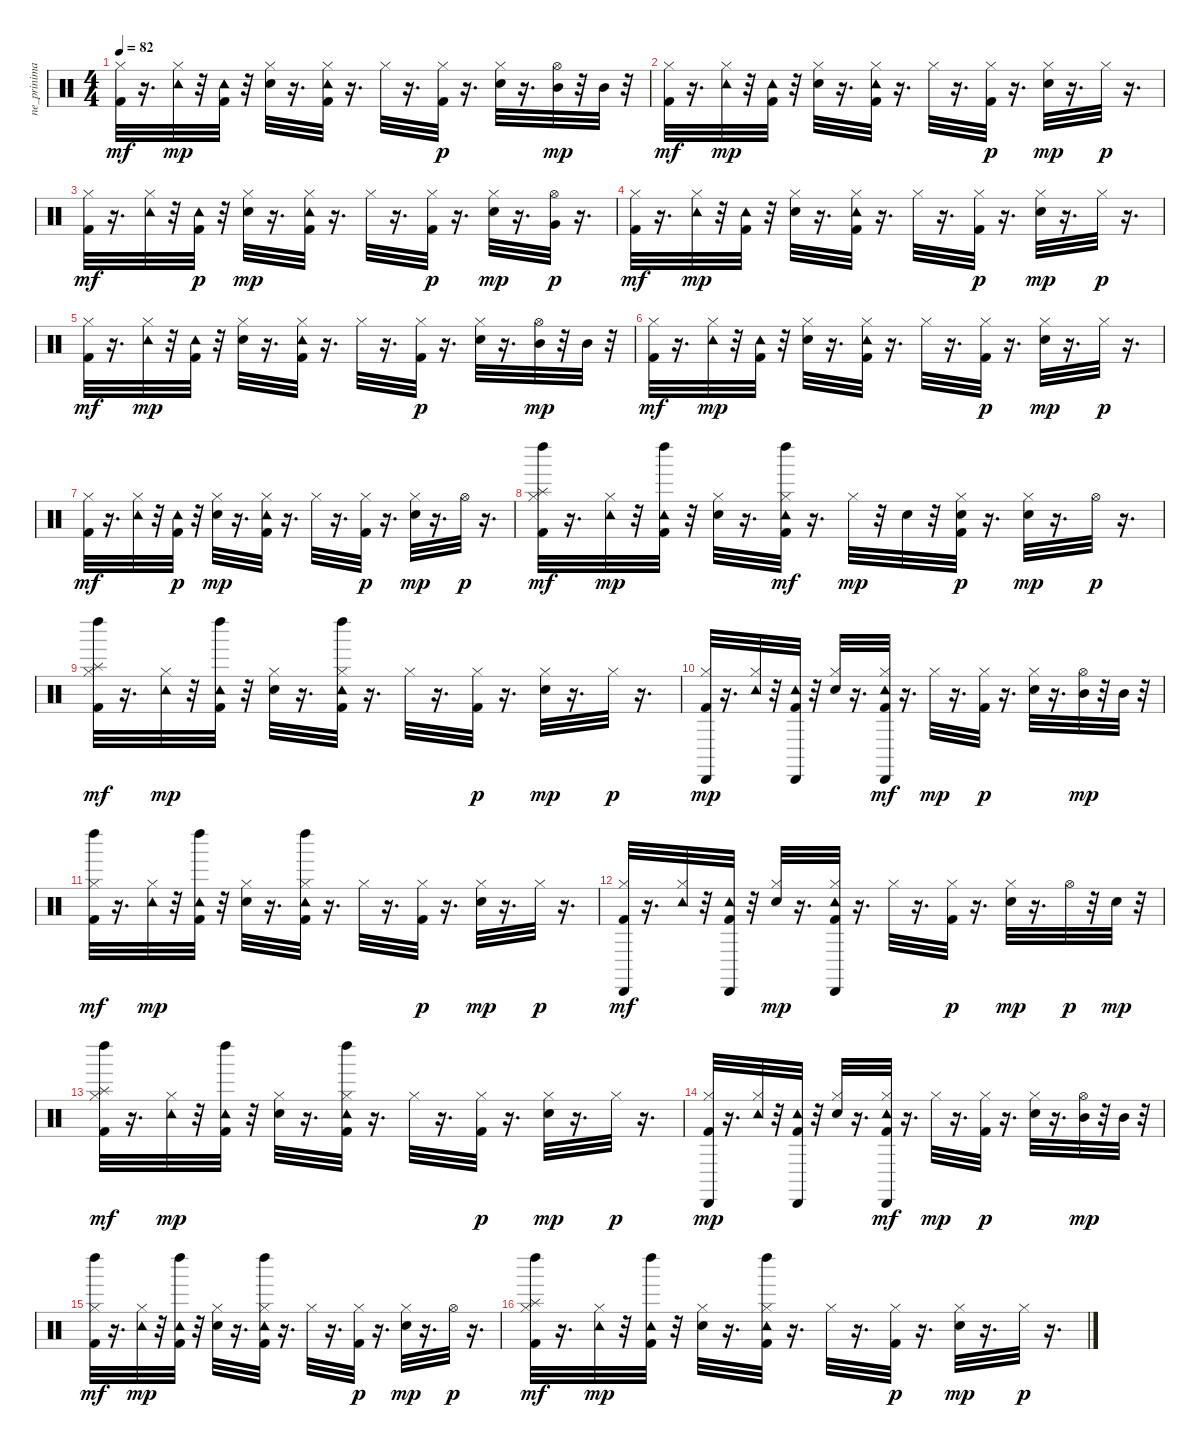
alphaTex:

\track ("ne_prinimai" "ne_prinima") {instrument percussion}
\staff {score}
\articulation defaults
\ts (4 4)
\tempo 82
\clef neutral
\ks c
("Kick (hit) 2" "Hi-Hat (closed)").32{dy mf} r.16{d} ("Hi-Hat (closed)" "Tambourine (hit)").32{dy mp} r.32 ("Kick (hit) 2" "Tambourine (hit)").32 r.32 ("Snare (hit) 2" "Hi-Hat (closed)").32 r.16{d} ("Kick (hit) 2" "Hi-Hat (closed)" "Tambourine (hit)").32 r.16{d} "Hi-Hat (closed)".32 r.16{d} ("Kick (hit) 2" "Hi-Hat (closed)").32{dy p} r.16{d} ("Snare (hit) 2" "Hi-Hat (closed)").32 r.16{d} ("Hi-Hat (open)" "Mid Tom (hit)").32{dy mp} r.32 "Mid Tom (hit)".32 r.32 |
("Kick (hit) 2" "Hi-Hat (closed)").32{dy mf} r.16{d} ("Hi-Hat (closed)" "Tambourine (hit)").32{dy mp} r.32 ("Kick (hit) 2" "Tambourine (hit)").32 r.32 ("Snare (hit) 2" "Hi-Hat (closed)").32 r.16{d} ("Kick (hit) 2" "Hi-Hat (closed)" "Tambourine (hit)").32 r.16{d} "Hi-Hat (closed)".32 r.16{d} ("Kick (hit) 2" "Hi-Hat (closed)").32{dy p} r.16{d} ("Snare (hit) 2" "Hi-Hat (closed)").32{dy mp} r.16{d} "Hi-Hat (closed)".32{dy p} r.16{d} |
("Kick (hit) 2" "Hi-Hat (closed)").32{dy mf} r.16{d} ("Hi-Hat (closed)" "Tambourine (hit)").32 r.32 ("Kick (hit) 2" "Tambourine (hit)").32{dy p} r.32 ("Snare (hit) 2" "Hi-Hat (closed)").32{dy mp} r.16{d} ("Kick (hit) 2" "Hi-Hat (closed)" "Tambourine (hit)").32 r.16{d} "Hi-Hat (closed)".32 r.16{d} ("Kick (hit) 2" "Hi-Hat (closed)").32{dy p} r.16{d} ("Snare (hit) 2" "Hi-Hat (closed)").32{dy mp} r.16{d} ("Very Low Tom (hit)" "Hi-Hat (open)").32{dy p} r.16{d} |
("Kick (hit) 2" "Hi-Hat (closed)").32{dy mf} r.16{d} ("Hi-Hat (closed)" "Tambourine (hit)").32{dy mp} r.32 ("Kick (hit) 2" "Tambourine (hit)").32 r.32 ("Snare (hit) 2" "Hi-Hat (closed)").32 r.16{d} ("Kick (hit) 2" "Hi-Hat (closed)" "Tambourine (hit)").32 r.16{d} "Hi-Hat (closed)".32 r.16{d} ("Kick (hit) 2" "Hi-Hat (closed)").32{dy p} r.16{d} ("Snare (hit) 2" "Hi-Hat (closed)").32{dy mp} r.16{d} "Hi-Hat (closed)".32{dy p} r.16{d} |
("Kick (hit) 2" "Hi-Hat (closed)").32{dy mf} r.16{d} ("Hi-Hat (closed)" "Tambourine (hit)").32{dy mp} r.32 ("Kick (hit) 2" "Tambourine (hit)").32 r.32 ("Snare (hit) 2" "Hi-Hat (closed)").32 r.16{d} ("Kick (hit) 2" "Hi-Hat (closed)" "Tambourine (hit)").32 r.16{d} "Hi-Hat (closed)".32 r.16{d} ("Kick (hit) 2" "Hi-Hat (closed)").32{dy p} r.16{d} ("Snare (hit) 2" "Hi-Hat (closed)").32 r.16{d} ("Hi-Hat (open)" "Mid Tom (hit)").32{dy mp} r.32 "Mid Tom (hit)".32 r.32 |
("Kick (hit) 2" "Hi-Hat (closed)").32{dy mf} r.16{d} ("Hi-Hat (closed)" "Tambourine (hit)").32{dy mp} r.32 ("Kick (hit) 2" "Tambourine (hit)").32 r.32 ("Snare (hit) 2" "Hi-Hat (closed)").32 r.16{d} ("Kick (hit) 2" "Hi-Hat (closed)" "Tambourine (hit)").32 r.16{d} "Hi-Hat (closed)".32 r.16{d} ("Kick (hit) 2" "Hi-Hat (closed)").32{dy p} r.16{d} ("Snare (hit) 2" "Hi-Hat (closed)").32{dy mp} r.16{d} "Hi-Hat (closed)".32{dy p} r.16{d} |
("Kick (hit) 2" "Hi-Hat (closed)").32{dy mf} r.16{d} ("Hi-Hat (closed)" "Tambourine (hit)").32 r.32 ("Kick (hit) 2" "Tambourine (hit)").32{dy p} r.32 ("Snare (hit) 2" "Hi-Hat (closed)").32{dy mp} r.16{d} ("Kick (hit) 2" "Hi-Hat (closed)" "Tambourine (hit)").32 r.16{d} "Hi-Hat (closed)".32 r.16{d} ("Kick (hit) 2" "Hi-Hat (closed)").32{dy p} r.16{d} ("Electric Snare (hit)" "Hi-Hat (closed)").32{dy mp} r.16{d} "Hi-Hat (open)".32{dy p} r.16{d} |
("Kick (hit) 2" "Hi-Hat (closed)" "Splash (hit)" "Left Maraca (hit)").32{dy mf} r.16{d} ("Hi-Hat (closed)" "Tambourine (hit)").32{dy mp} r.32 ("Kick (hit) 2" "Tambourine (hit)" "Left Maraca (hit)").32 r.32 ("Electric Snare (hit)" "Hi-Hat (closed)").32 r.16{d} ("Kick (hit) 2" "Hi-Hat (closed)" "Tambourine (hit)" "Left Maraca (hit)").32{dy mf} r.16{d} "Hi-Hat (closed)".32{dy mp} r.32 "Snare (hit) 2".32 r.32 ("Kick (hit) 2" "Snare (hit) 2" "Hi-Hat (closed)").32{dy p} r.16{d} ("Electric Snare (hit)" "Hi-Hat (closed)").32{dy mp} r.16{d} "Hi-Hat (open)".32{dy p} r.16{d} |
("Kick (hit) 2" "Hi-Hat (closed)" "Splash (hit)" "Left Maraca (hit)").32{dy mf} r.16{d} ("Hi-Hat (closed)" "Tambourine (hit)").32{dy mp} r.32 ("Kick (hit) 2" "Tambourine (hit)" "Left Maraca (hit)").32 r.32 ("Electric Snare (hit)" "Hi-Hat (closed)").32 r.16{d} ("Kick (hit) 2" "Hi-Hat (closed)" "Tambourine (hit)" "Left Maraca (hit)").32 r.16{d} "Hi-Hat (closed)".32 r.16{d} ("Kick (hit) 2" "Hi-Hat (closed)").32{dy p} r.16{d} ("Electric Snare (hit)" "Hi-Hat (closed)").32{dy mp} r.16{d} "Hi-Hat (closed)".32{dy p} r.16{d} |
("Kick (hit) 2" "Hi-Hat (closed)" "Cabasa (hit)").32{dy mp} r.16{d} ("Hi-Hat (closed)" "Tambourine (hit)").32 r.32 ("Kick (hit) 2" "Tambourine (hit)" "Cabasa (hit)").32 r.32 ("Electric Snare (hit)" "Hi-Hat (closed)").32 r.16{d} ("Kick (hit) 2" "Hi-Hat (closed)" "Tambourine (hit)" "Cabasa (hit)").32{dy mf} r.16{d} "Hi-Hat (closed)".32{dy mp} r.16{d} ("Kick (hit) 2" "Hi-Hat (closed)").32{dy p} r.16{d} ("Electric Snare (hit)" "Hi-Hat (closed)").32 r.16{d} ("Hi-Hat (open)" "Mid Tom (hit)").32{dy mp} r.32 "Mid Tom (hit)".32 r.32 |
("Kick (hit) 2" "Hi-Hat (closed)" "Left Maraca (hit)").32{dy mf} r.16{d} ("Hi-Hat (closed)" "Tambourine (hit)").32{dy mp} r.32 ("Kick (hit) 2" "Tambourine (hit)" "Left Maraca (hit)").32 r.32 ("Electric Snare (hit)" "Hi-Hat (closed)").32 r.16{d} ("Kick (hit) 2" "Hi-Hat (closed)" "Tambourine (hit)" "Left Maraca (hit)").32 r.16{d} "Hi-Hat (closed)".32 r.16{d} ("Kick (hit) 2" "Hi-Hat (closed)").32{dy p} r.16{d} ("Electric Snare (hit)" "Hi-Hat (closed)").32{dy mp} r.16{d} "Hi-Hat (closed)".32{dy p} r.16{d} |
("Kick (hit) 2" "Hi-Hat (closed)" "Cabasa (hit)").32{dy mf} r.16{d} ("Hi-Hat (closed)" "Tambourine (hit)").32 r.32 ("Kick (hit) 2" "Tambourine (hit)" "Cabasa (hit)").32 r.32 ("Electric Snare (hit)" "Hi-Hat (closed)").32{dy mp} r.16{d} ("Kick (hit) 2" "Hi-Hat (closed)" "Tambourine (hit)" "Cabasa (hit)").32 r.16{d} "Hi-Hat (closed)".32 r.16{d} ("Kick (hit) 2" "Hi-Hat (closed)").32{dy p} r.16{d} ("Electric Snare (hit)" "Hi-Hat (closed)").32{dy mp} r.16{d} "Hi-Hat (open)".32{dy p} r.32 "Electric Snare (hit)".32{dy mp} r.32 |
("Kick (hit) 2" "Hi-Hat (closed)" "Splash (hit)" "Left Maraca (hit)").32{dy mf} r.16{d} ("Hi-Hat (closed)" "Tambourine (hit)").32{dy mp} r.32 ("Kick (hit) 2" "Tambourine (hit)" "Left Maraca (hit)").32 r.32 ("Electric Snare (hit)" "Hi-Hat (closed)").32 r.16{d} ("Kick (hit) 2" "Hi-Hat (closed)" "Tambourine (hit)" "Left Maraca (hit)").32 r.16{d} "Hi-Hat (closed)".32 r.16{d} ("Kick (hit) 2" "Hi-Hat (closed)").32{dy p} r.16{d} ("Electric Snare (hit)" "Hi-Hat (closed)").32{dy mp} r.16{d} "Hi-Hat (closed)".32{dy p} r.16{d} |
("Kick (hit) 2" "Hi-Hat (closed)" "Cabasa (hit)").32{dy mp} r.16{d} ("Hi-Hat (closed)" "Tambourine (hit)").32 r.32 ("Kick (hit) 2" "Tambourine (hit)" "Cabasa (hit)").32 r.32 ("Electric Snare (hit)" "Hi-Hat (closed)").32 r.16{d} ("Kick (hit) 2" "Hi-Hat (closed)" "Tambourine (hit)" "Cabasa (hit)").32{dy mf} r.16{d} "Hi-Hat (closed)".32{dy mp} r.16{d} ("Kick (hit) 2" "Hi-Hat (closed)").32{dy p} r.16{d} ("Electric Snare (hit)" "Hi-Hat (closed)").32 r.16{d} ("Hi-Hat (open)" "Mid Tom (hit)").32{dy mp} r.32 "Mid Tom (hit)".32 r.32 |
("Kick (hit) 2" "Hi-Hat (closed)" "Left Maraca (hit)").32{dy mf} r.16{d} ("Hi-Hat (closed)" "Tambourine (hit)").32{dy mp} r.32 ("Kick (hit) 2" "Tambourine (hit)" "Left Maraca (hit)").32 r.32 ("Electric Snare (hit)" "Hi-Hat (closed)").32 r.16{d} ("Kick (hit) 2" "Hi-Hat (closed)" "Tambourine (hit)" "Left Maraca (hit)").32 r.16{d} "Hi-Hat (closed)".32 r.16{d} ("Kick (hit) 2" "Hi-Hat (closed)").32{dy p} r.16{d} ("Electric Snare (hit)" "Hi-Hat (closed)").32{dy mp} r.16{d} "Hi-Hat (open)".32{dy p} r.16{d} |
("Kick (hit) 2" "Hi-Hat (closed)" "Splash (hit)" "Left Maraca (hit)").32{dy mf} r.16{d} ("Hi-Hat (closed)" "Tambourine (hit)").32{dy mp} r.32 ("Kick (hit) 2" "Tambourine (hit)" "Left Maraca (hit)").32 r.32 ("Electric Snare (hit)" "Hi-Hat (closed)").32 r.16{d} ("Kick (hit) 2" "Hi-Hat (closed)" "Tambourine (hit)" "Left Maraca (hit)").32 r.16{d} "Hi-Hat (closed)".32 r.16{d} ("Kick (hit) 2" "Hi-Hat (closed)").32{dy p} r.16{d} ("Electric Snare (hit)" "Hi-Hat (closed)").32{dy mp} r.16{d} "Hi-Hat (closed)".32{dy p} r.16{d}
